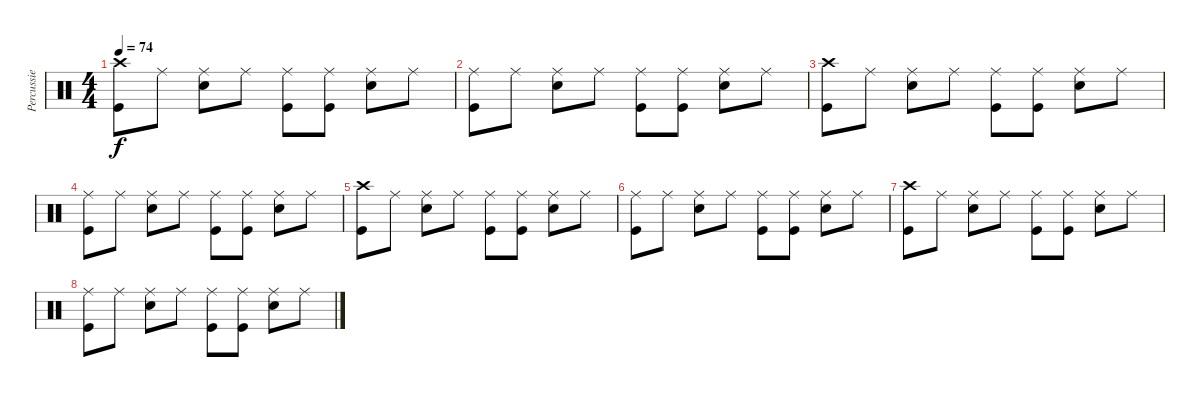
\track ("Percussie" "Percussie") {instrument percussion}
\staff {score}
\articulation defaults
\ts (4 4)
\tempo 74
\clef neutral
\ks c
("Crash high (hit)" "Kick (hit)").8{dy f} "Ride (middle)".8 ("Ride (middle)" "Snare (hit) 2").8 "Ride (middle)".8 ("Ride (middle)" "Kick (hit)").8 ("Ride (middle)" "Kick (hit)").8 ("Ride (middle)" "Snare (hit) 2").8 "Ride (middle)".8 |
("Ride (middle)" "Kick (hit)").8 "Ride (middle)".8 ("Ride (middle)" "Snare (hit) 2").8 "Ride (middle)".8 ("Ride (middle)" "Kick (hit)").8 ("Ride (middle)" "Kick (hit)").8 ("Ride (middle)" "Snare (hit) 2").8 "Ride (middle)".8 |
("Crash high (hit)" "Kick (hit)").8 "Ride (middle)".8 ("Ride (middle)" "Snare (hit) 2").8 "Ride (middle)".8 ("Ride (middle)" "Kick (hit)").8 ("Ride (middle)" "Kick (hit)").8 ("Ride (middle)" "Snare (hit) 2").8 "Ride (middle)".8 |
("Ride (middle)" "Kick (hit)").8 "Ride (middle)".8 ("Ride (middle)" "Snare (hit) 2").8 "Ride (middle)".8 ("Ride (middle)" "Kick (hit)").8 ("Ride (middle)" "Kick (hit)").8 ("Ride (middle)" "Snare (hit) 2").8 "Ride (middle)".8 |
("Crash high (hit)" "Kick (hit)").8 "Ride (middle)".8 ("Ride (middle)" "Snare (hit) 2").8 "Ride (middle)".8 ("Ride (middle)" "Kick (hit)").8 ("Ride (middle)" "Kick (hit)").8 ("Ride (middle)" "Snare (hit) 2").8 "Ride (middle)".8 |
("Ride (middle)" "Kick (hit)").8 "Ride (middle)".8 ("Ride (middle)" "Snare (hit) 2").8 "Ride (middle)".8 ("Ride (middle)" "Kick (hit)").8 ("Ride (middle)" "Kick (hit)").8 ("Ride (middle)" "Snare (hit) 2").8 "Ride (middle)".8 |
("Crash high (hit)" "Kick (hit)").8 "Ride (middle)".8 ("Ride (middle)" "Snare (hit) 2").8 "Ride (middle)".8 ("Ride (middle)" "Kick (hit)").8 ("Ride (middle)" "Kick (hit)").8 ("Ride (middle)" "Snare (hit) 2").8 "Ride (middle)".8 |
("Ride (middle)" "Kick (hit)").8 "Ride (middle)".8 ("Ride (middle)" "Snare (hit) 2").8 "Ride (middle)".8 ("Ride (middle)" "Kick (hit)").8 ("Ride (middle)" "Kick (hit)").8 ("Ride (middle)" "Snare (hit) 2").8 "Ride (middle)".8
